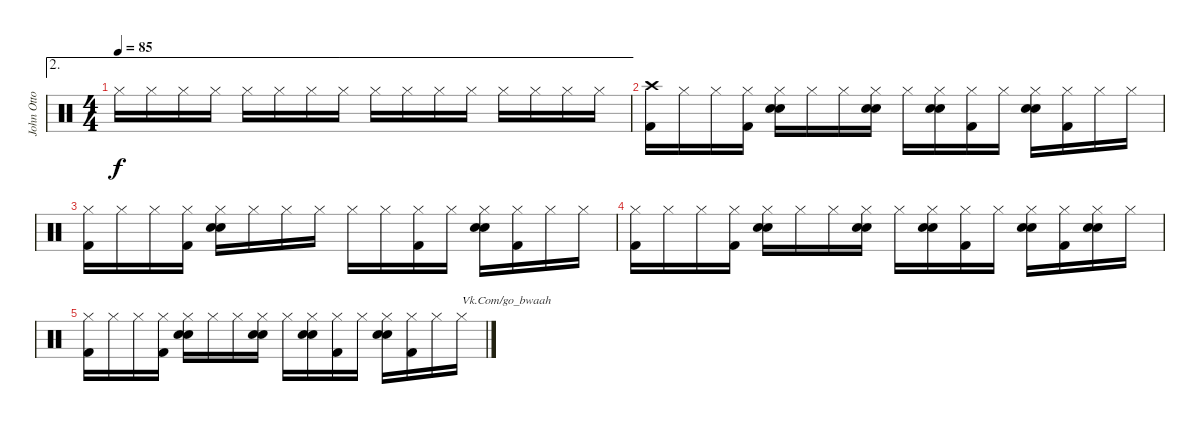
\track ("John Otto" "John Otto") {instrument percussion}
\staff {score}
\articulation defaults
\ae 2
\ts (4 4)
\tempo 85
\clef neutral
\ks c "Hi-Hat (closed)".16{dy f} "Hi-Hat (closed)".16 "Hi-Hat (closed)".16 "Hi-Hat (closed)".16 "Hi-Hat (closed)".16 "Hi-Hat (closed)".16 "Hi-Hat (closed)".16 "Hi-Hat (closed)".16 "Hi-Hat (closed)".16 "Hi-Hat (closed)".16 "Hi-Hat (closed)".16 "Hi-Hat (closed)".16 "Hi-Hat (closed)".16 "Hi-Hat (closed)".16 "Hi-Hat (closed)".16 "Hi-Hat (closed)".16
|
("Crash high (hit)" "Kick (hit) 2").16{volume 10} "Hi-Hat (closed)".16 "Hi-Hat (closed)".16 ("Hi-Hat (closed)" "Kick (hit) 2").16 ("Hi-Hat (closed)" "Hand Clap (hit)" "Electric Snare (hit)").16 "Hi-Hat (closed)".16 "Hi-Hat (closed)".16 ("Hi-Hat (closed)" "Hand Clap (hit)" "Electric Snare (hit)").16 "Hi-Hat (closed)".16 ("Hi-Hat (closed)" "Hand Clap (hit)" "Electric Snare (hit)").16 ("Hi-Hat (closed)" "Kick (hit) 2").16 "Hi-Hat (closed)".16 ("Hi-Hat (closed)" "Hand Clap (hit)" "Electric Snare (hit)").16 ("Hi-Hat (closed)" "Kick (hit) 2").16 "Hi-Hat (closed)".16 "Hi-Hat (closed)".16 |
("Hi-Hat (closed)" "Kick (hit) 2").16{volume 8} "Hi-Hat (closed)".16 "Hi-Hat (closed)".16 ("Hi-Hat (closed)" "Kick (hit) 2").16 ("Hi-Hat (closed)" "Hand Clap (hit)" "Electric Snare (hit)").16 "Hi-Hat (closed)".16 "Hi-Hat (closed)".16 "Hi-Hat (closed)".16 "Hi-Hat (closed)".16 "Hi-Hat (closed)".16 ("Hi-Hat (closed)" "Kick (hit) 2").16 "Hi-Hat (closed)".16 ("Hi-Hat (closed)" "Hand Clap (hit)" "Electric Snare (hit)").16 ("Hi-Hat (closed)" "Kick (hit) 2").16 "Hi-Hat (closed)".16 "Hi-Hat (closed)".16 |
("Hi-Hat (closed)" "Kick (hit) 2").16{volume 6} "Hi-Hat (closed)".16 "Hi-Hat (closed)".16 ("Hi-Hat (closed)" "Kick (hit) 2").16 ("Hi-Hat (closed)" "Hand Clap (hit)" "Electric Snare (hit)").16 "Hi-Hat (closed)".16 "Hi-Hat (closed)".16 ("Hi-Hat (closed)" "Hand Clap (hit)" "Electric Snare (hit)").16 "Hi-Hat (closed)".16 ("Hi-Hat (closed)" "Hand Clap (hit)" "Electric Snare (hit)").16 ("Hi-Hat (closed)" "Kick (hit) 2").16 "Hi-Hat (closed)".16 ("Hi-Hat (closed)" "Hand Clap (hit)" "Electric Snare (hit)").16 ("Hi-Hat (closed)" "Kick (hit) 2").16 ("Hi-Hat (closed)" "Hand Clap (hit)" "Electric Snare (hit)").16 "Hi-Hat (closed)".16 |
("Hi-Hat (closed)" "Kick (hit) 2").16{volume 2} "Hi-Hat (closed)".16 "Hi-Hat (closed)".16 ("Hi-Hat (closed)" "Kick (hit) 2").16 ("Hi-Hat (closed)" "Hand Clap (hit)" "Electric Snare (hit)").16 "Hi-Hat (closed)".16 "Hi-Hat (closed)".16 ("Hi-Hat (closed)" "Hand Clap (hit)" "Electric Snare (hit)").16 "Hi-Hat (closed)".16 ("Hi-Hat (closed)" "Hand Clap (hit)" "Electric Snare (hit)").16 ("Hi-Hat (closed)" "Kick (hit) 2").16 "Hi-Hat (closed)".16 ("Hi-Hat (closed)" "Hand Clap (hit)" "Electric Snare (hit)").16 ("Hi-Hat (closed)" "Kick (hit) 2").16 "Hi-Hat (closed)".16 "Hi-Hat (closed)".16{txt "Vk.Com/go_bwaah"}
